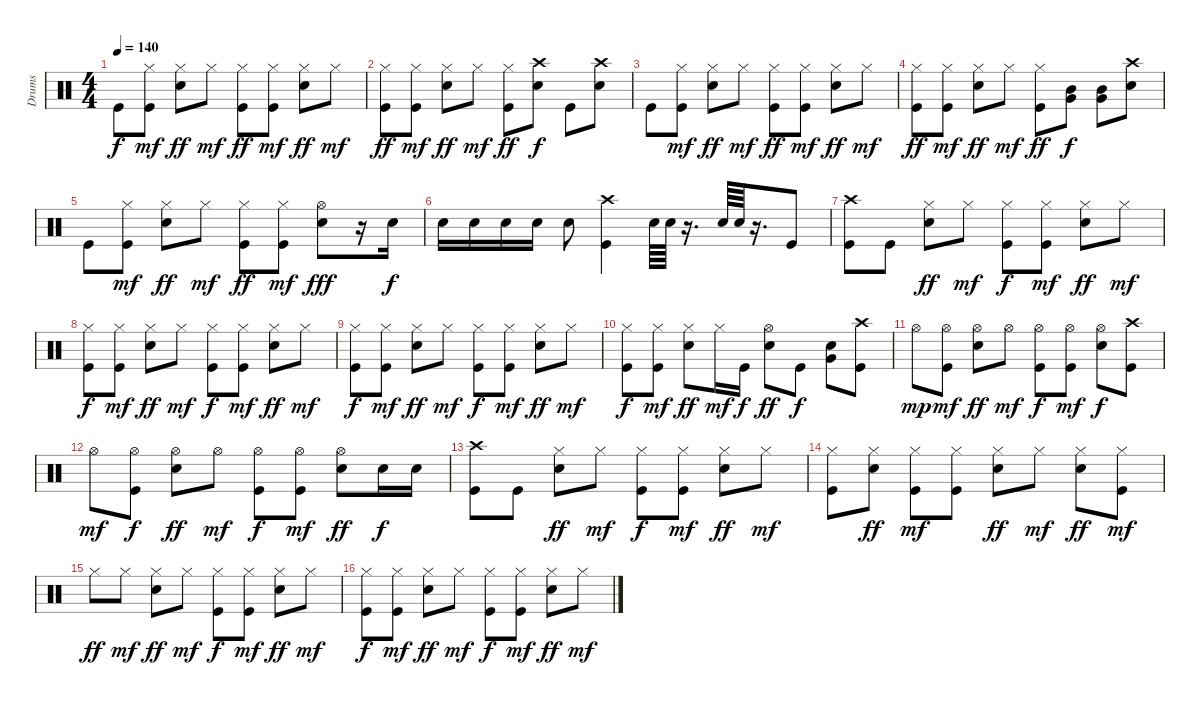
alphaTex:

\track ("Drums" "Drums") {instrument percussion}
\staff {score}
\articulation defaults
\ts (4 4)
\tempo 140
\clef neutral
\ks c "Kick (hit)".8{dy f}
("Hi-Hat (closed)" "Kick (hit)").8{dy mf} ("Hi-Hat (closed)" "Snare (hit) 2").8{dy ff} "Hi-Hat (closed)".8{dy mf} ("Hi-Hat (closed)" "Kick (hit)").8{dy ff} ("Hi-Hat (closed)" "Kick (hit)").8{dy mf} ("Hi-Hat (closed)" "Snare (hit) 2").8{dy ff} "Hi-Hat (closed)".8{dy mf} |
("Hi-Hat (closed)" "Kick (hit)").8{dy ff} ("Hi-Hat (closed)" "Kick (hit)").8{dy mf} ("Hi-Hat (closed)" "Snare (hit) 2").8{dy ff} "Hi-Hat (closed)".8{dy mf} ("Hi-Hat (closed)" "Kick (hit)").8{dy ff} ("Crash high (hit)" "Snare (hit) 2").8{dy f} "Kick (hit)".8 ("Crash high (hit)" "Snare (hit) 2").8 |
"Kick (hit)".8 ("Hi-Hat (closed)" "Kick (hit)").8{dy mf} ("Hi-Hat (closed)" "Snare (hit) 2").8{dy ff} "Hi-Hat (closed)".8{dy mf} ("Hi-Hat (closed)" "Kick (hit)").8{dy ff} ("Hi-Hat (closed)" "Kick (hit)").8{dy mf} ("Hi-Hat (closed)" "Snare (hit) 2").8{dy ff} "Hi-Hat (closed)".8{dy mf} |
("Hi-Hat (closed)" "Kick (hit)").8{dy ff} ("Hi-Hat (closed)" "Kick (hit)").8{dy mf} ("Hi-Hat (closed)" "Snare (hit) 2").8{dy ff} "Hi-Hat (closed)".8{dy mf} ("Hi-Hat (closed)" "Kick (hit)").8{dy ff} ("Mid Tom (hit)" "Very Low Tom (hit)").8{dy f} ("Mid Tom (hit)" "Very Low Tom (hit)").8 ("Crash high (hit)" "Snare (hit) 2").8 |
"Kick (hit)".8 ("Hi-Hat (closed)" "Kick (hit)").8{dy mf} ("Hi-Hat (closed)" "Snare (hit) 2").8{dy ff} "Hi-Hat (closed)".8{dy mf} ("Hi-Hat (closed)" "Kick (hit)").8{dy ff} ("Hi-Hat (closed)" "Kick (hit)").8{dy mf} ("Hi-Hat (open)" "Snare (hit) 2").8{dy fff} r.16 "Snare (hit) 2".16{dy f} |
"Snare (hit) 2".16 "Snare (hit) 2".16 "Snare (hit) 2".16 "Snare (hit) 2".16 "Snare (hit) 2".8 ("Crash high (hit)" "Kick (hit)").4 "Snare (hit) 2".64 "Snare (hit) 2".64 r.16{d} "Snare (hit) 2".64 "Snare (hit) 2".64 r.16{d} "Kick (hit)".8 |
("Crash high (hit)" "Kick (hit)").8 "Kick (hit)".8 ("Hi-Hat (closed)" "Snare (hit) 2").8{dy ff} "Hi-Hat (closed)".8{dy mf} ("Hi-Hat (closed)" "Kick (hit)").8{dy f} ("Hi-Hat (closed)" "Kick (hit)").8{dy mf} ("Hi-Hat (closed)" "Snare (hit) 2").8{dy ff} "Hi-Hat (closed)".8{dy mf} |
("Hi-Hat (closed)" "Kick (hit)").8{dy f} ("Hi-Hat (closed)" "Kick (hit)").8{dy mf} ("Hi-Hat (closed)" "Snare (hit) 2").8{dy ff} "Hi-Hat (closed)".8{dy mf} ("Hi-Hat (closed)" "Kick (hit)").8{dy f} ("Hi-Hat (closed)" "Kick (hit)").8{dy mf} ("Hi-Hat (closed)" "Snare (hit) 2").8{dy ff} "Hi-Hat (closed)".8{dy mf} |
("Hi-Hat (closed)" "Kick (hit)").8{dy f} ("Hi-Hat (closed)" "Kick (hit)").8{dy mf} ("Hi-Hat (closed)" "Snare (hit) 2").8{dy ff} "Hi-Hat (closed)".8{dy mf} ("Hi-Hat (closed)" "Kick (hit)").8{dy f} ("Hi-Hat (closed)" "Kick (hit)").8{dy mf} ("Hi-Hat (closed)" "Snare (hit) 2").8{dy ff} "Hi-Hat (closed)".8{dy mf} |
("Hi-Hat (closed)" "Kick (hit)").8{dy f} ("Hi-Hat (closed)" "Kick (hit)").8{dy mf} ("Hi-Hat (closed)" "Snare (hit) 2").8{dy ff} "Hi-Hat (closed)".16{dy mf} "Kick (hit)".16{dy f} ("Hi-Hat (open)" "Snare (hit) 2").8{dy ff} "Kick (hit)".8{dy f} ("Snare (hit) 2" "Very Low Tom (hit)").8 ("Crash high (hit)" "Kick (hit)").8 |
"Hi-Hat (open)".8{dy mp} ("Hi-Hat (open)" "Kick (hit)").8{dy mf} ("Hi-Hat (open)" "Snare (hit) 2").8{dy ff} "Hi-Hat (open)".8{dy mf} ("Hi-Hat (open)" "Kick (hit)").8{dy f} ("Hi-Hat (open)" "Kick (hit)").8{dy mf} ("Hi-Hat (open)" "Snare (hit) 2").8{dy f} ("Crash high (hit)" "Kick (hit)").8 |
"Hi-Hat (open)".8{dy mf} ("Hi-Hat (open)" "Kick (hit)").8{dy f} ("Hi-Hat (open)" "Snare (hit) 2").8{dy ff} "Hi-Hat (open)".8{dy mf} ("Hi-Hat (open)" "Kick (hit)").8{dy f} ("Hi-Hat (open)" "Kick (hit)").8{dy mf} ("Hi-Hat (open)" "Snare (hit) 2").8{dy ff} "Snare (hit) 2".16{dy f} "Snare (hit) 2".16 |
("Crash high (hit)" "Kick (hit)").8 "Kick (hit)".8 ("Hi-Hat (closed)" "Snare (hit) 2").8{dy ff} "Hi-Hat (closed)".8{dy mf} ("Hi-Hat (closed)" "Kick (hit)").8{dy f} ("Hi-Hat (closed)" "Kick (hit)").8{dy mf} ("Hi-Hat (closed)" "Snare (hit) 2").8{dy ff} "Hi-Hat (closed)".8{dy mf} |
("Hi-Hat (closed)" "Kick (hit)").8 ("Hi-Hat (closed)" "Snare (hit) 2").8{dy ff} ("Hi-Hat (closed)" "Kick (hit)").8{dy mf} ("Hi-Hat (closed)" "Kick (hit)").8 ("Hi-Hat (closed)" "Snare (hit) 2").8{dy ff} "Hi-Hat (closed)".8{dy mf} ("Hi-Hat (closed)" "Snare (hit) 2").8{dy ff} ("Hi-Hat (closed)" "Kick (hit)").8{dy mf} |
"Hi-Hat (closed)".8{dy ff} "Hi-Hat (closed)".8{dy mf} ("Hi-Hat (closed)" "Snare (hit) 2").8{dy ff} "Hi-Hat (closed)".8{dy mf} ("Hi-Hat (closed)" "Kick (hit)").8{dy f} ("Hi-Hat (closed)" "Kick (hit)").8{dy mf} ("Hi-Hat (closed)" "Snare (hit) 2").8{dy ff} "Hi-Hat (closed)".8{dy mf} |
("Hi-Hat (closed)" "Kick (hit)").8{dy f} ("Hi-Hat (closed)" "Kick (hit)").8{dy mf} ("Hi-Hat (closed)" "Snare (hit) 2").8{dy ff} "Hi-Hat (closed)".8{dy mf} ("Hi-Hat (closed)" "Kick (hit)").8{dy f} ("Hi-Hat (closed)" "Kick (hit)").8{dy mf} ("Hi-Hat (closed)" "Snare (hit) 2").8{dy ff} "Hi-Hat (closed)".8{dy mf}
